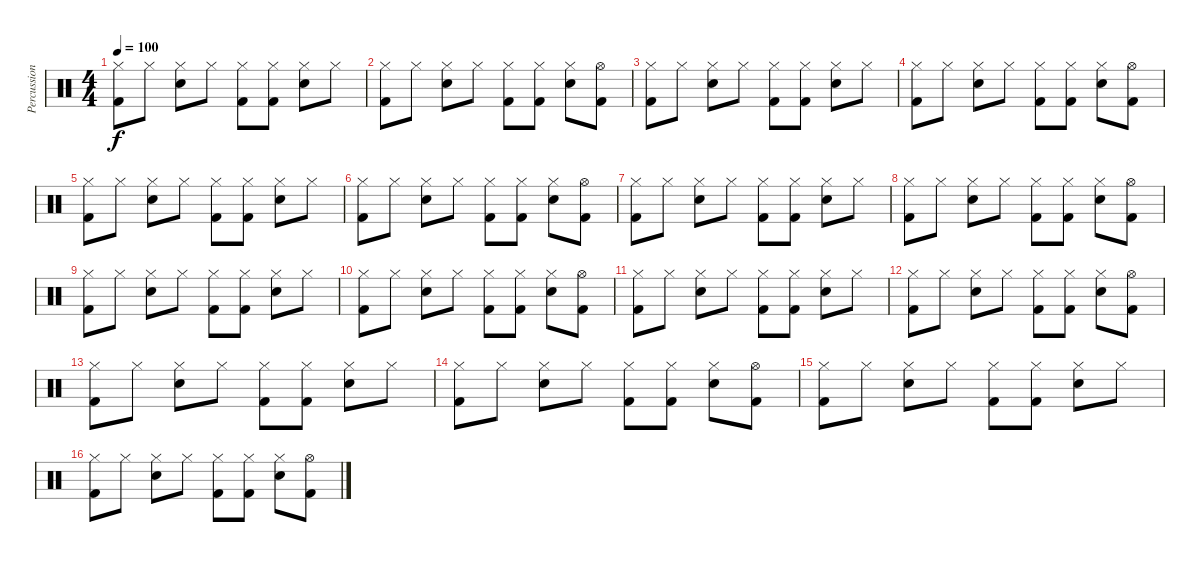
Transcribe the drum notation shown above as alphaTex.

\track ("Percussion" "Percussion") {instrument percussion}
\staff {score}
\articulation defaults
\ts (4 4)
\tempo 100
\clef neutral
\ks c
("Kick (hit) 2" "Hi-Hat (closed)").8{dy f} "Hi-Hat (closed)".8 ("Snare (hit) 2" "Hi-Hat (closed)").8 "Hi-Hat (closed)".8 ("Kick (hit) 2" "Hi-Hat (closed)").8 ("Kick (hit) 2" "Hi-Hat (closed)").8 ("Snare (hit) 2" "Hi-Hat (closed)").8 "Hi-Hat (closed)".8 |
("Kick (hit) 2" "Hi-Hat (closed)").8 "Hi-Hat (closed)".8 ("Snare (hit) 2" "Hi-Hat (closed)").8 "Hi-Hat (closed)".8 ("Kick (hit) 2" "Hi-Hat (closed)").8 ("Kick (hit) 2" "Hi-Hat (closed)").8 ("Snare (hit) 2" "Hi-Hat (closed)").8 ("Kick (hit) 2" "Hi-Hat (open)").8 |
("Kick (hit) 2" "Hi-Hat (closed)").8 "Hi-Hat (closed)".8 ("Snare (hit) 2" "Hi-Hat (closed)").8 "Hi-Hat (closed)".8 ("Kick (hit) 2" "Hi-Hat (closed)").8 ("Kick (hit) 2" "Hi-Hat (closed)").8 ("Snare (hit) 2" "Hi-Hat (closed)").8 "Hi-Hat (closed)".8 |
("Kick (hit) 2" "Hi-Hat (closed)").8 "Hi-Hat (closed)".8 ("Snare (hit) 2" "Hi-Hat (closed)").8 "Hi-Hat (closed)".8 ("Kick (hit) 2" "Hi-Hat (closed)").8 ("Kick (hit) 2" "Hi-Hat (closed)").8 ("Snare (hit) 2" "Hi-Hat (closed)").8 ("Kick (hit) 2" "Hi-Hat (open)").8 |
("Kick (hit) 2" "Hi-Hat (closed)").8 "Hi-Hat (closed)".8 ("Snare (hit) 2" "Hi-Hat (closed)").8 "Hi-Hat (closed)".8 ("Kick (hit) 2" "Hi-Hat (closed)").8 ("Kick (hit) 2" "Hi-Hat (closed)").8 ("Snare (hit) 2" "Hi-Hat (closed)").8 "Hi-Hat (closed)".8 |
("Kick (hit) 2" "Hi-Hat (closed)").8 "Hi-Hat (closed)".8 ("Snare (hit) 2" "Hi-Hat (closed)").8 "Hi-Hat (closed)".8 ("Kick (hit) 2" "Hi-Hat (closed)").8 ("Kick (hit) 2" "Hi-Hat (closed)").8 ("Snare (hit) 2" "Hi-Hat (closed)").8 ("Kick (hit) 2" "Hi-Hat (open)").8 |
("Kick (hit) 2" "Hi-Hat (closed)").8 "Hi-Hat (closed)".8 ("Snare (hit) 2" "Hi-Hat (closed)").8 "Hi-Hat (closed)".8 ("Kick (hit) 2" "Hi-Hat (closed)").8 ("Kick (hit) 2" "Hi-Hat (closed)").8 ("Snare (hit) 2" "Hi-Hat (closed)").8 "Hi-Hat (closed)".8 |
("Kick (hit) 2" "Hi-Hat (closed)").8 "Hi-Hat (closed)".8 ("Snare (hit) 2" "Hi-Hat (closed)").8 "Hi-Hat (closed)".8 ("Kick (hit) 2" "Hi-Hat (closed)").8 ("Kick (hit) 2" "Hi-Hat (closed)").8 ("Snare (hit) 2" "Hi-Hat (closed)").8 ("Kick (hit) 2" "Hi-Hat (open)").8 |
("Kick (hit) 2" "Hi-Hat (closed)").8 "Hi-Hat (closed)".8 ("Snare (hit) 2" "Hi-Hat (closed)").8 "Hi-Hat (closed)".8 ("Kick (hit) 2" "Hi-Hat (closed)").8 ("Kick (hit) 2" "Hi-Hat (closed)").8 ("Snare (hit) 2" "Hi-Hat (closed)").8 "Hi-Hat (closed)".8 |
("Kick (hit) 2" "Hi-Hat (closed)").8 "Hi-Hat (closed)".8 ("Snare (hit) 2" "Hi-Hat (closed)").8 "Hi-Hat (closed)".8 ("Kick (hit) 2" "Hi-Hat (closed)").8 ("Kick (hit) 2" "Hi-Hat (closed)").8 ("Snare (hit) 2" "Hi-Hat (closed)").8 ("Kick (hit) 2" "Hi-Hat (open)").8 |
("Kick (hit) 2" "Hi-Hat (closed)").8 "Hi-Hat (closed)".8 ("Snare (hit) 2" "Hi-Hat (closed)").8 "Hi-Hat (closed)".8 ("Kick (hit) 2" "Hi-Hat (closed)").8 ("Kick (hit) 2" "Hi-Hat (closed)").8 ("Snare (hit) 2" "Hi-Hat (closed)").8 "Hi-Hat (closed)".8 |
("Kick (hit) 2" "Hi-Hat (closed)").8 "Hi-Hat (closed)".8 ("Snare (hit) 2" "Hi-Hat (closed)").8 "Hi-Hat (closed)".8 ("Kick (hit) 2" "Hi-Hat (closed)").8 ("Kick (hit) 2" "Hi-Hat (closed)").8 ("Snare (hit) 2" "Hi-Hat (closed)").8 ("Kick (hit) 2" "Hi-Hat (open)").8 |
("Kick (hit) 2" "Hi-Hat (closed)").8 "Hi-Hat (closed)".8 ("Snare (hit) 2" "Hi-Hat (closed)").8 "Hi-Hat (closed)".8 ("Kick (hit) 2" "Hi-Hat (closed)").8 ("Kick (hit) 2" "Hi-Hat (closed)").8 ("Snare (hit) 2" "Hi-Hat (closed)").8 "Hi-Hat (closed)".8 |
("Kick (hit) 2" "Hi-Hat (closed)").8 "Hi-Hat (closed)".8 ("Snare (hit) 2" "Hi-Hat (closed)").8 "Hi-Hat (closed)".8 ("Kick (hit) 2" "Hi-Hat (closed)").8 ("Kick (hit) 2" "Hi-Hat (closed)").8 ("Snare (hit) 2" "Hi-Hat (closed)").8 ("Kick (hit) 2" "Hi-Hat (open)").8 |
("Kick (hit) 2" "Hi-Hat (closed)").8 "Hi-Hat (closed)".8 ("Snare (hit) 2" "Hi-Hat (closed)").8 "Hi-Hat (closed)".8 ("Kick (hit) 2" "Hi-Hat (closed)").8 ("Kick (hit) 2" "Hi-Hat (closed)").8 ("Snare (hit) 2" "Hi-Hat (closed)").8 "Hi-Hat (closed)".8 |
("Kick (hit) 2" "Hi-Hat (closed)").8 "Hi-Hat (closed)".8 ("Snare (hit) 2" "Hi-Hat (closed)").8 "Hi-Hat (closed)".8 ("Kick (hit) 2" "Hi-Hat (closed)").8 ("Kick (hit) 2" "Hi-Hat (closed)").8 ("Snare (hit) 2" "Hi-Hat (closed)").8 ("Kick (hit) 2" "Hi-Hat (open)").8
